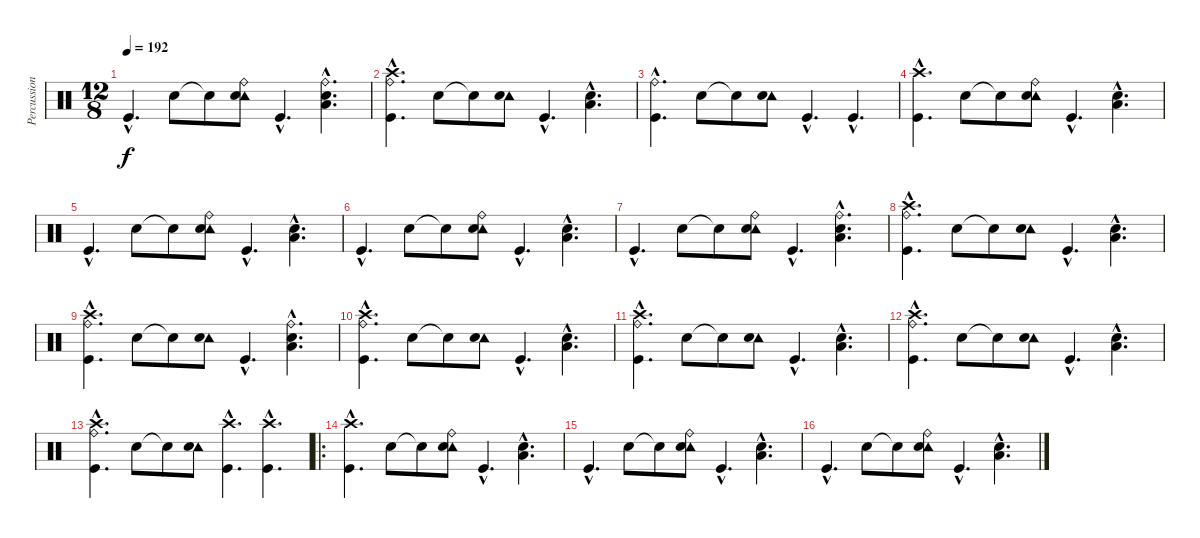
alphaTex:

\track ("Percussion" "Percussion") {instrument percussion}
\staff {score}
\articulation defaults
\ts (12 8)
\tempo 192
\clef neutral
\ks c "Kick (hit)"{hac}.4{d dy f} "Snare (hit) 2".8 "Snare (hit)"{t}.8
("Tambourine (hit)" "Ride (bell)" "Snare (hit) 2").8 "Kick (hit)"{hac}.4{d} ("Ride (bell)"{hac} "Snare (hit) 2"{hac} "Low Floor Tom (hit)"{hac}).4{d} |
("Crash high (hit)"{hac} "Ride (bell)"{hac} "Kick (hit)"{hac}).4{d} "Snare (hit) 2".8 "Snare (hit)"{t}.8 ("Tambourine (hit)" "Snare (hit) 2").8 "Kick (hit)"{hac}.4{d} ("Snare (hit) 2"{hac} "Low Floor Tom (hit)"{hac}).4{d} |
("Ride (bell)"{hac} "Kick (hit)"{hac}).4{d} "Snare (hit) 2".8 "Snare (hit)"{t}.8 ("Tambourine (hit)" "Snare (hit) 2").8 "Kick (hit)"{hac}.4{d} "Kick (hit)"{hac}.4{d} |
("Crash high (hit)"{hac} "Kick (hit)"{hac}).4{d} "Snare (hit) 2".8 "Snare (hit)"{t}.8 ("Tambourine (hit)" "Ride (bell)" "Snare (hit) 2").8 "Kick (hit)"{hac}.4{d} ("Snare (hit) 2"{hac} "Low Floor Tom (hit)"{hac}).4{d} |
"Kick (hit)"{hac}.4{d} "Snare (hit) 2".8 "Snare (hit)"{t}.8 ("Tambourine (hit)" "Ride (bell)" "Snare (hit) 2").8 "Kick (hit)"{hac}.4{d} ("Snare (hit) 2"{hac} "Low Floor Tom (hit)"{hac}).4{d} |
"Kick (hit)"{hac}.4{d} "Snare (hit) 2".8 "Snare (hit)"{t}.8 ("Tambourine (hit)" "Ride (bell)" "Snare (hit) 2").8 "Kick (hit)"{hac}.4{d} ("Snare (hit) 2"{hac} "Low Floor Tom (hit)"{hac}).4{d} |
"Kick (hit)"{hac}.4{d} "Snare (hit) 2".8 "Snare (hit)"{t}.8 ("Tambourine (hit)" "Ride (bell)" "Snare (hit) 2").8 "Kick (hit)"{hac}.4{d} ("Ride (bell)"{hac} "Snare (hit) 2"{hac} "Low Floor Tom (hit)"{hac}).4{d} |
("Crash high (hit)"{hac} "Ride (bell)"{hac} "Kick (hit)"{hac}).4{d} "Snare (hit) 2".8 "Snare (hit)"{t}.8 ("Tambourine (hit)" "Snare (hit) 2").8 "Kick (hit)"{hac}.4{d} ("Snare (hit) 2"{hac} "Low Floor Tom (hit)"{hac}).4{d} |
("Crash high (hit)"{hac} "Ride (bell)"{hac} "Kick (hit)"{hac}).4{d} "Snare (hit) 2".8 "Snare (hit)"{t}.8 ("Tambourine (hit)" "Snare (hit) 2").8 "Kick (hit)"{hac}.4{d} ("Ride (bell)"{hac} "Snare (hit) 2"{hac} "Low Floor Tom (hit)"{hac}).4{d} |
("Crash high (hit)"{hac} "Ride (bell)"{hac} "Kick (hit)"{hac}).4{d} "Snare (hit) 2".8 "Snare (hit)"{t}.8 ("Tambourine (hit)" "Snare (hit) 2").8 "Kick (hit)"{hac}.4{d} ("Snare (hit) 2"{hac} "Low Floor Tom (hit)"{hac}).4{d} |
("Crash high (hit)"{hac} "Ride (bell)"{hac} "Kick (hit)"{hac}).4{d} "Snare (hit) 2".8 "Snare (hit)"{t}.8 ("Tambourine (hit)" "Snare (hit) 2").8 "Kick (hit)"{hac}.4{d} ("Snare (hit) 2"{hac} "Low Floor Tom (hit)"{hac}).4{d} |
("Crash high (hit)"{hac} "Ride (bell)"{hac} "Kick (hit)"{hac}).4{d} "Snare (hit) 2".8 "Snare (hit)"{t}.8 ("Tambourine (hit)" "Snare (hit) 2").8 "Kick (hit)"{hac}.4{d} ("Snare (hit) 2"{hac} "Low Floor Tom (hit)"{hac}).4{d} |
("Crash high (hit)"{hac} "Ride (bell)"{hac} "Kick (hit)"{hac}).4{d} "Snare (hit) 2".8 "Snare (hit)"{t}.8 ("Tambourine (hit)" "Snare (hit) 2").8 ("Crash high (hit)"{hac} "Kick (hit)"{hac}).4{d} ("Crash high (hit)"{hac} "Kick (hit)"{hac}).4{d} |
\ro
("Crash high (hit)"{hac} "Kick (hit)"{hac}).4{d} "Snare (hit) 2".8 "Snare (hit)"{t}.8 ("Tambourine (hit)" "Ride (bell)" "Snare (hit) 2").8 "Kick (hit)"{hac}.4{d} ("Snare (hit) 2"{hac} "Low Floor Tom (hit)"{hac}).4{d} |
"Kick (hit)"{hac}.4{d} "Snare (hit) 2".8 "Snare (hit)"{t}.8 ("Tambourine (hit)" "Ride (bell)" "Snare (hit) 2").8 "Kick (hit)"{hac}.4{d} ("Snare (hit) 2"{hac} "Low Floor Tom (hit)"{hac}).4{d} |
"Kick (hit)"{hac}.4{d} "Snare (hit) 2".8 "Snare (hit)"{t}.8 ("Tambourine (hit)" "Ride (bell)" "Snare (hit) 2").8 "Kick (hit)"{hac}.4{d} ("Snare (hit) 2"{hac} "Low Floor Tom (hit)"{hac}).4{d}
